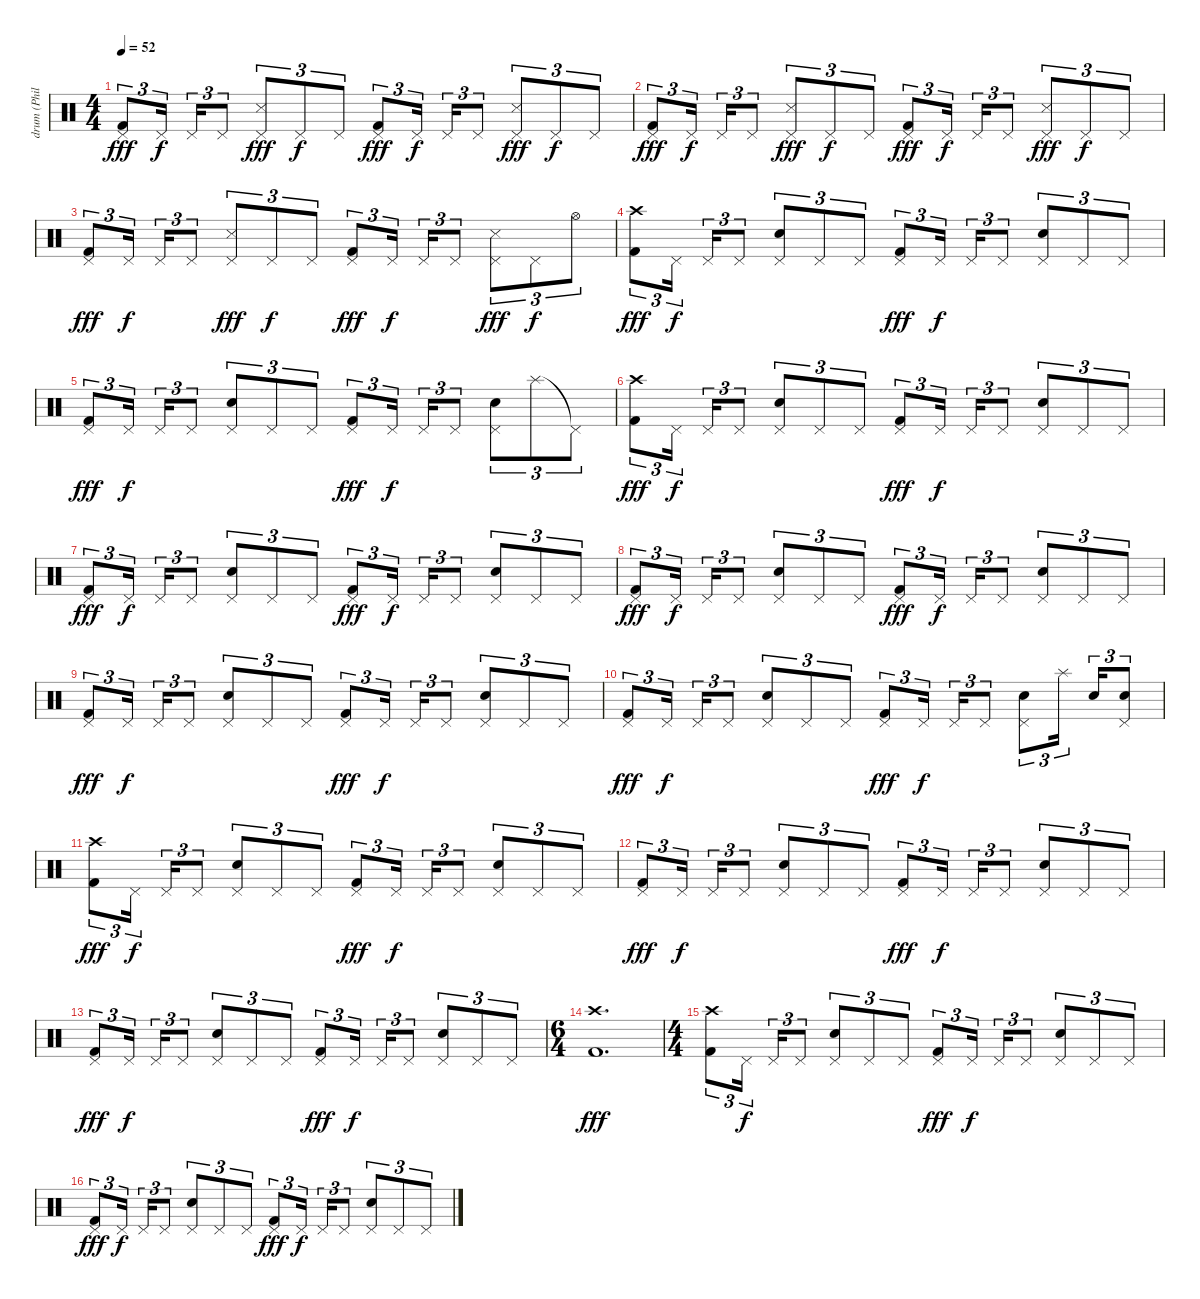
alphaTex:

\track ("drum (Phil)" "drum (Phil") {instrument percussion}
\staff {score}
\articulation defaults
\ts (4 4)
\tempo 52
\clef neutral
\ks c
("Pedal Hi-Hat (hit)" "Kick (hit) 2").8{tu (3 2) dy fff} "Pedal Hi-Hat (hit)".16{tu (3 2) dy f} "Pedal Hi-Hat (hit)".16{tu (3 2)} "Pedal Hi-Hat (hit)".8{tu (3 2)} ("Pedal Hi-Hat (hit)" "Snare (side stick) 3").8{tu (3 2) dy fff} "Pedal Hi-Hat (hit)".8{tu (3 2) dy f} "Pedal Hi-Hat (hit)".8{tu (3 2)} ("Pedal Hi-Hat (hit)" "Kick (hit) 2").8{tu (3 2) dy fff} "Pedal Hi-Hat (hit)".16{tu (3 2) dy f} "Pedal Hi-Hat (hit)".16{tu (3 2)} "Pedal Hi-Hat (hit)".8{tu (3 2)} ("Pedal Hi-Hat (hit)" "Snare (side stick) 3").8{tu (3 2) dy fff} "Pedal Hi-Hat (hit)".8{tu (3 2) dy f} "Pedal Hi-Hat (hit)".8{tu (3 2)} |
("Pedal Hi-Hat (hit)" "Kick (hit) 2").8{tu (3 2) dy fff} "Pedal Hi-Hat (hit)".16{tu (3 2) dy f} "Pedal Hi-Hat (hit)".16{tu (3 2)} "Pedal Hi-Hat (hit)".8{tu (3 2)} ("Pedal Hi-Hat (hit)" "Snare (side stick) 3").8{tu (3 2) dy fff} "Pedal Hi-Hat (hit)".8{tu (3 2) dy f} "Pedal Hi-Hat (hit)".8{tu (3 2)} ("Pedal Hi-Hat (hit)" "Kick (hit) 2").8{tu (3 2) dy fff} "Pedal Hi-Hat (hit)".16{tu (3 2) dy f} "Pedal Hi-Hat (hit)".16{tu (3 2)} "Pedal Hi-Hat (hit)".8{tu (3 2)} ("Pedal Hi-Hat (hit)" "Snare (side stick) 3").8{tu (3 2) dy fff} "Pedal Hi-Hat (hit)".8{tu (3 2) dy f} "Pedal Hi-Hat (hit)".8{tu (3 2)} |
("Pedal Hi-Hat (hit)" "Kick (hit) 2").8{tu (3 2) dy fff} "Pedal Hi-Hat (hit)".16{tu (3 2) dy f} "Pedal Hi-Hat (hit)".16{tu (3 2)} "Pedal Hi-Hat (hit)".8{tu (3 2)} ("Pedal Hi-Hat (hit)" "Snare (side stick) 3").8{tu (3 2) dy fff} "Pedal Hi-Hat (hit)".8{tu (3 2) dy f} "Pedal Hi-Hat (hit)".8{tu (3 2)} ("Pedal Hi-Hat (hit)" "Kick (hit) 2").8{tu (3 2) dy fff} "Pedal Hi-Hat (hit)".16{tu (3 2) dy f} "Pedal Hi-Hat (hit)".16{tu (3 2)} "Pedal Hi-Hat (hit)".8{tu (3 2)} ("Pedal Hi-Hat (hit)" "Snare (side stick) 3").8{tu (3 2) dy fff} "Pedal Hi-Hat (hit)".8{tu (3 2) dy f} "Hi-Hat (open)".8{tu (3 2)} |
("Crash high (hit)" "Kick (hit) 2").8{tu (3 2) dy fff} "Pedal Hi-Hat (hit)".16{tu (3 2) dy f} "Pedal Hi-Hat (hit)".16{tu (3 2)} "Pedal Hi-Hat (hit)".8{tu (3 2)} ("Pedal Hi-Hat (hit)" "Electric Snare (hit)").8{tu (3 2)} "Pedal Hi-Hat (hit)".8{tu (3 2)} "Pedal Hi-Hat (hit)".8{tu (3 2)} ("Pedal Hi-Hat (hit)" "Kick (hit) 2").8{tu (3 2) dy fff} "Pedal Hi-Hat (hit)".16{tu (3 2) dy f} "Pedal Hi-Hat (hit)".16{tu (3 2)} "Pedal Hi-Hat (hit)".8{tu (3 2)} ("Pedal Hi-Hat (hit)" "Electric Snare (hit)").8{tu (3 2)} "Pedal Hi-Hat (hit)".8{tu (3 2)} "Pedal Hi-Hat (hit)".8{tu (3 2)} |
("Pedal Hi-Hat (hit)" "Kick (hit) 2").8{tu (3 2) dy fff} "Pedal Hi-Hat (hit)".16{tu (3 2) dy f} "Pedal Hi-Hat (hit)".16{tu (3 2)} "Pedal Hi-Hat (hit)".8{tu (3 2)} ("Pedal Hi-Hat (hit)" "Electric Snare (hit)").8{tu (3 2)} "Pedal Hi-Hat (hit)".8{tu (3 2)} "Pedal Hi-Hat (hit)".8{tu (3 2)} ("Pedal Hi-Hat (hit)" "Kick (hit) 2").8{tu (3 2) dy fff} "Pedal Hi-Hat (hit)".16{tu (3 2) dy f} "Pedal Hi-Hat (hit)".16{tu (3 2)} "Pedal Hi-Hat (hit)".8{tu (3 2)} ("Pedal Hi-Hat (hit)" "Electric Snare (hit)").8{tu (3 2)} "Splash (hit)".8{tu (3 2)} "Pedal Hi-Hat (hit)"{t}.8{tu (3 2)} |
("Crash high (hit)" "Kick (hit) 2").8{tu (3 2) dy fff} "Pedal Hi-Hat (hit)".16{tu (3 2) dy f} "Pedal Hi-Hat (hit)".16{tu (3 2)} "Pedal Hi-Hat (hit)".8{tu (3 2)} ("Pedal Hi-Hat (hit)" "Electric Snare (hit)").8{tu (3 2)} "Pedal Hi-Hat (hit)".8{tu (3 2)} "Pedal Hi-Hat (hit)".8{tu (3 2)} ("Pedal Hi-Hat (hit)" "Kick (hit) 2").8{tu (3 2) dy fff} "Pedal Hi-Hat (hit)".16{tu (3 2) dy f} "Pedal Hi-Hat (hit)".16{tu (3 2)} "Pedal Hi-Hat (hit)".8{tu (3 2)} ("Pedal Hi-Hat (hit)" "Electric Snare (hit)").8{tu (3 2)} "Pedal Hi-Hat (hit)".8{tu (3 2)} "Pedal Hi-Hat (hit)".8{tu (3 2)} |
("Pedal Hi-Hat (hit)" "Kick (hit) 2").8{tu (3 2) dy fff} "Pedal Hi-Hat (hit)".16{tu (3 2) dy f} "Pedal Hi-Hat (hit)".16{tu (3 2)} "Pedal Hi-Hat (hit)".8{tu (3 2)} ("Pedal Hi-Hat (hit)" "Electric Snare (hit)").8{tu (3 2)} "Pedal Hi-Hat (hit)".8{tu (3 2)} "Pedal Hi-Hat (hit)".8{tu (3 2)} ("Pedal Hi-Hat (hit)" "Kick (hit) 2").8{tu (3 2) dy fff} "Pedal Hi-Hat (hit)".16{tu (3 2) dy f} "Pedal Hi-Hat (hit)".16{tu (3 2)} "Pedal Hi-Hat (hit)".8{tu (3 2)} ("Pedal Hi-Hat (hit)" "Electric Snare (hit)").8{tu (3 2)} "Pedal Hi-Hat (hit)".8{tu (3 2)} "Pedal Hi-Hat (hit)".8{tu (3 2)} |
("Pedal Hi-Hat (hit)" "Kick (hit) 2").8{tu (3 2) dy fff} "Pedal Hi-Hat (hit)".16{tu (3 2) dy f} "Pedal Hi-Hat (hit)".16{tu (3 2)} "Pedal Hi-Hat (hit)".8{tu (3 2)} ("Pedal Hi-Hat (hit)" "Electric Snare (hit)").8{tu (3 2)} "Pedal Hi-Hat (hit)".8{tu (3 2)} "Pedal Hi-Hat (hit)".8{tu (3 2)} ("Pedal Hi-Hat (hit)" "Kick (hit) 2").8{tu (3 2) dy fff} "Pedal Hi-Hat (hit)".16{tu (3 2) dy f} "Pedal Hi-Hat (hit)".16{tu (3 2)} "Pedal Hi-Hat (hit)".8{tu (3 2)} ("Pedal Hi-Hat (hit)" "Electric Snare (hit)").8{tu (3 2)} "Pedal Hi-Hat (hit)".8{tu (3 2)} "Pedal Hi-Hat (hit)".8{tu (3 2)} |
("Pedal Hi-Hat (hit)" "Kick (hit) 2").8{tu (3 2) dy fff} "Pedal Hi-Hat (hit)".16{tu (3 2) dy f} "Pedal Hi-Hat (hit)".16{tu (3 2)} "Pedal Hi-Hat (hit)".8{tu (3 2)} ("Pedal Hi-Hat (hit)" "Electric Snare (hit)").8{tu (3 2)} "Pedal Hi-Hat (hit)".8{tu (3 2)} "Pedal Hi-Hat (hit)".8{tu (3 2)} ("Pedal Hi-Hat (hit)" "Kick (hit) 2").8{tu (3 2) dy fff} "Pedal Hi-Hat (hit)".16{tu (3 2) dy f} "Pedal Hi-Hat (hit)".16{tu (3 2)} "Pedal Hi-Hat (hit)".8{tu (3 2)} ("Pedal Hi-Hat (hit)" "Electric Snare (hit)").8{tu (3 2)} "Pedal Hi-Hat (hit)".8{tu (3 2)} "Pedal Hi-Hat (hit)".8{tu (3 2)} |
("Pedal Hi-Hat (hit)" "Kick (hit) 2").8{tu (3 2) dy fff} "Pedal Hi-Hat (hit)".16{tu (3 2) dy f} "Pedal Hi-Hat (hit)".16{tu (3 2)} "Pedal Hi-Hat (hit)".8{tu (3 2)} ("Pedal Hi-Hat (hit)" "Electric Snare (hit)").8{tu (3 2)} "Pedal Hi-Hat (hit)".8{tu (3 2)} "Pedal Hi-Hat (hit)".8{tu (3 2)} ("Pedal Hi-Hat (hit)" "Kick (hit) 2").8{tu (3 2) dy fff} "Pedal Hi-Hat (hit)".16{tu (3 2) dy f} "Pedal Hi-Hat (hit)".16{tu (3 2)} "Pedal Hi-Hat (hit)".8{tu (3 2)} ("Pedal Hi-Hat (hit)" "Electric Snare (hit)").8{tu (3 2)} "Splash (hit)".16{tu (3 2)} "Electric Snare (hit)".16{tu (3 2)} ("Pedal Hi-Hat (hit)" "Electric Snare (hit)").8{tu (3 2)} |
("Crash high (hit)" "Kick (hit) 2").8{tu (3 2) dy fff} "Pedal Hi-Hat (hit)".16{tu (3 2) dy f} "Pedal Hi-Hat (hit)".16{tu (3 2)} "Pedal Hi-Hat (hit)".8{tu (3 2)} ("Pedal Hi-Hat (hit)" "Electric Snare (hit)").8{tu (3 2)} "Pedal Hi-Hat (hit)".8{tu (3 2)} "Pedal Hi-Hat (hit)".8{tu (3 2)} ("Pedal Hi-Hat (hit)" "Kick (hit) 2").8{tu (3 2) dy fff} "Pedal Hi-Hat (hit)".16{tu (3 2) dy f} "Pedal Hi-Hat (hit)".16{tu (3 2)} "Pedal Hi-Hat (hit)".8{tu (3 2)} ("Pedal Hi-Hat (hit)" "Electric Snare (hit)").8{tu (3 2)} "Pedal Hi-Hat (hit)".8{tu (3 2)} "Pedal Hi-Hat (hit)".8{tu (3 2)} |
("Pedal Hi-Hat (hit)" "Kick (hit) 2").8{tu (3 2) dy fff} "Pedal Hi-Hat (hit)".16{tu (3 2) dy f} "Pedal Hi-Hat (hit)".16{tu (3 2)} "Pedal Hi-Hat (hit)".8{tu (3 2)} ("Pedal Hi-Hat (hit)" "Electric Snare (hit)").8{tu (3 2)} "Pedal Hi-Hat (hit)".8{tu (3 2)} "Pedal Hi-Hat (hit)".8{tu (3 2)} ("Pedal Hi-Hat (hit)" "Kick (hit) 2").8{tu (3 2) dy fff} "Pedal Hi-Hat (hit)".16{tu (3 2) dy f} "Pedal Hi-Hat (hit)".16{tu (3 2)} "Pedal Hi-Hat (hit)".8{tu (3 2)} ("Pedal Hi-Hat (hit)" "Electric Snare (hit)").8{tu (3 2)} "Pedal Hi-Hat (hit)".8{tu (3 2)} "Pedal Hi-Hat (hit)".8{tu (3 2)} |
("Pedal Hi-Hat (hit)" "Kick (hit) 2").8{tu (3 2) dy fff} "Pedal Hi-Hat (hit)".16{tu (3 2) dy f} "Pedal Hi-Hat (hit)".16{tu (3 2)} "Pedal Hi-Hat (hit)".8{tu (3 2)} ("Pedal Hi-Hat (hit)" "Electric Snare (hit)").8{tu (3 2)} "Pedal Hi-Hat (hit)".8{tu (3 2)} "Pedal Hi-Hat (hit)".8{tu (3 2)} ("Pedal Hi-Hat (hit)" "Kick (hit) 2").8{tu (3 2) dy fff} "Pedal Hi-Hat (hit)".16{tu (3 2) dy f} "Pedal Hi-Hat (hit)".16{tu (3 2)} "Pedal Hi-Hat (hit)".8{tu (3 2)} ("Pedal Hi-Hat (hit)" "Electric Snare (hit)").8{tu (3 2)} "Pedal Hi-Hat (hit)".8{tu (3 2)} "Pedal Hi-Hat (hit)".8{tu (3 2)} |
\ts (6 4)
("Crash high (hit)" "Kick (hit) 2").1{d dy fff} |
\ts (4 4)
("Crash high (hit)" "Kick (hit) 2").8{tu (3 2)} "Pedal Hi-Hat (hit)".16{tu (3 2) dy f} "Pedal Hi-Hat (hit)".16{tu (3 2)} "Pedal Hi-Hat (hit)".8{tu (3 2)} ("Pedal Hi-Hat (hit)" "Electric Snare (hit)").8{tu (3 2)} "Pedal Hi-Hat (hit)".8{tu (3 2)} "Pedal Hi-Hat (hit)".8{tu (3 2)} ("Pedal Hi-Hat (hit)" "Kick (hit) 2").8{tu (3 2) dy fff} "Pedal Hi-Hat (hit)".16{tu (3 2) dy f} "Pedal Hi-Hat (hit)".16{tu (3 2)} "Pedal Hi-Hat (hit)".8{tu (3 2)} ("Pedal Hi-Hat (hit)" "Electric Snare (hit)").8{tu (3 2)} "Pedal Hi-Hat (hit)".8{tu (3 2)} "Pedal Hi-Hat (hit)".8{tu (3 2)} |
("Pedal Hi-Hat (hit)" "Kick (hit) 2").8{tu (3 2) dy fff} "Pedal Hi-Hat (hit)".16{tu (3 2) dy f} "Pedal Hi-Hat (hit)".16{tu (3 2)} "Pedal Hi-Hat (hit)".8{tu (3 2)} ("Pedal Hi-Hat (hit)" "Electric Snare (hit)").8{tu (3 2)} "Pedal Hi-Hat (hit)".8{tu (3 2)} "Pedal Hi-Hat (hit)".8{tu (3 2)} ("Pedal Hi-Hat (hit)" "Kick (hit) 2").8{tu (3 2) dy fff} "Pedal Hi-Hat (hit)".16{tu (3 2) dy f} "Pedal Hi-Hat (hit)".16{tu (3 2)} "Pedal Hi-Hat (hit)".8{tu (3 2)} ("Pedal Hi-Hat (hit)" "Electric Snare (hit)").8{tu (3 2)} "Pedal Hi-Hat (hit)".8{tu (3 2)} "Pedal Hi-Hat (hit)".8{tu (3 2)}
